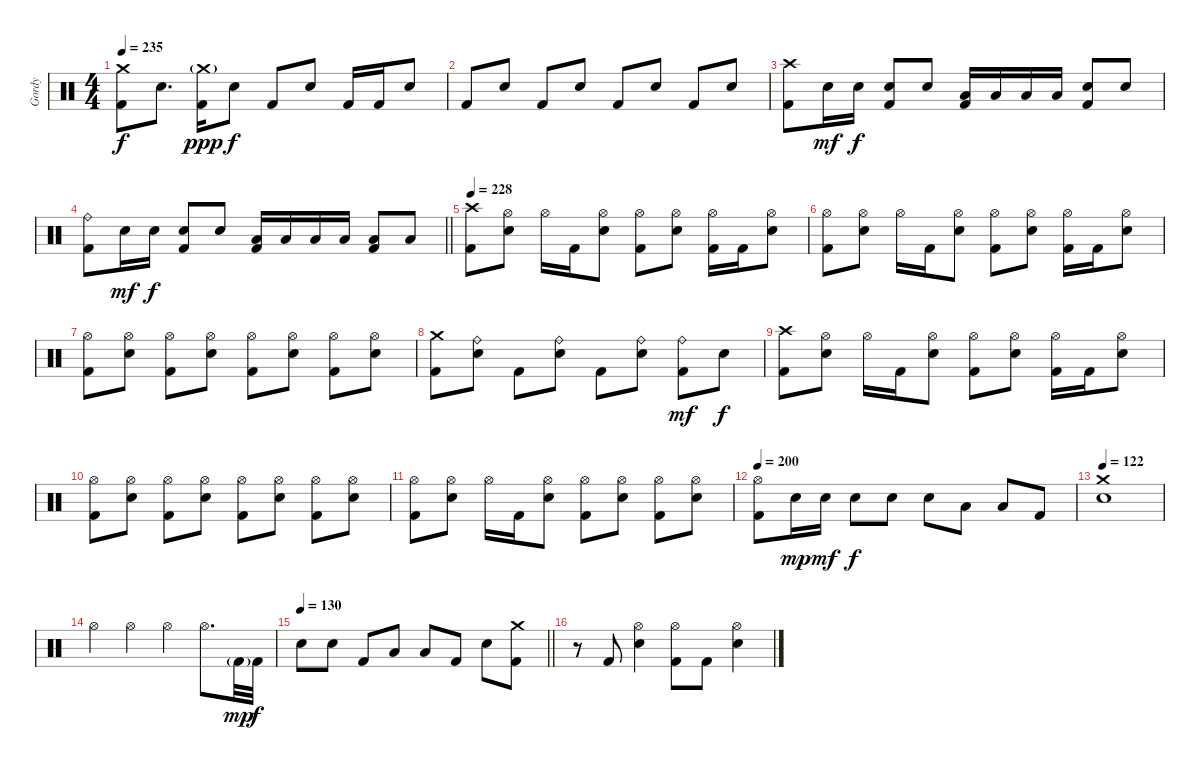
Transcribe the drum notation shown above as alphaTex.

\track ("Gordy" "Gordy") {instrument percussion}
\staff {score}
\articulation defaults
\ts (4 4)
\tempo 235
\clef neutral
\ks c
("Crash medium (hit)" "Kick (hit) 2").8{dy f} "Electric Snare (hit)".8{d} ("Crash medium (hit)"{g} "Kick (hit) 2").16{dy ppp} "Electric Snare (hit)".8{dy f} "Kick (hit) 2".8 "Electric Snare (hit)".8 "Kick (hit) 2".16 "Kick (hit) 2".16 "Electric Snare (hit)".8 |
"Kick (hit) 2".8 "Electric Snare (hit)".8 "Kick (hit) 2".8 "Electric Snare (hit)".8 "Kick (hit) 2".8 "Electric Snare (hit)".8 "Kick (hit) 2".8 "Electric Snare (hit)".8 |
("Crash high (hit)" "Kick (hit) 2").8 "Electric Snare (hit)".16{dy mf} "Electric Snare (hit)".16{dy f} ("Electric Snare (hit)" "Kick (hit) 2").8 "Electric Snare (hit)".8 ("Low Tom (hit)" "Kick (hit) 2").16 "Low Tom (hit)".16 "Low Tom (hit)".16 "Low Tom (hit)".16 ("Electric Snare (hit)" "Kick (hit) 2").8 "Electric Snare (hit)".8 |
\barLineRight lightlight
("Ride (bell)" "Kick (hit) 2").8 "Electric Snare (hit)".16{dy mf} "Electric Snare (hit)".16{dy f} ("Electric Snare (hit)" "Kick (hit) 2").8 "Electric Snare (hit)".8 ("Low Tom (hit)" "Kick (hit) 2").16 "Low Tom (hit)".16 "Low Tom (hit)".16 "Low Tom (hit)".16 ("Low Floor Tom (hit)" "Kick (hit) 2").8 "Low Floor Tom (hit)".8 |
\section ("" "")
\tempo 228
("Crash high (hit)" "Kick (hit) 2").8 ("Hi-Hat (open)" "Electric Snare (hit)").8 "Hi-Hat (open)".16 "Kick (hit) 2".16 ("Hi-Hat (open)" "Electric Snare (hit)").8 ("Hi-Hat (open)" "Kick (hit) 2").8 ("Hi-Hat (open)" "Electric Snare (hit)").8 ("Hi-Hat (open)" "Kick (hit) 2").16 "Kick (hit) 2".16 ("Hi-Hat (open)" "Electric Snare (hit)").8 |
("Hi-Hat (open)" "Kick (hit) 2").8 ("Hi-Hat (open)" "Electric Snare (hit)").8 "Hi-Hat (open)".16 "Kick (hit) 2".16 ("Hi-Hat (open)" "Electric Snare (hit)").8 ("Hi-Hat (open)" "Kick (hit) 2").8 ("Hi-Hat (open)" "Electric Snare (hit)").8 ("Hi-Hat (open)" "Kick (hit) 2").16 "Kick (hit) 2".16 ("Hi-Hat (open)" "Electric Snare (hit)").8 |
("Hi-Hat (open)" "Kick (hit) 2").8 ("Hi-Hat (open)" "Electric Snare (hit)").8 ("Hi-Hat (open)" "Kick (hit) 2").8 ("Hi-Hat (open)" "Electric Snare (hit)").8 ("Hi-Hat (open)" "Kick (hit) 2").8 ("Hi-Hat (open)" "Electric Snare (hit)").8 ("Hi-Hat (open)" "Kick (hit) 2").8 ("Hi-Hat (open)" "Electric Snare (hit)").8 |
("Crash medium (hit)" "Kick (hit) 2").8 ("Ride (bell)" "Electric Snare (hit)").8 "Kick (hit) 2".8 ("Ride (bell)" "Electric Snare (hit)").8 "Kick (hit) 2".8 ("Ride (bell)" "Electric Snare (hit)").8 ("Ride (bell)" "Kick (hit) 2").8{dy mf} "Electric Snare (hit)".8{dy f} |
("Crash high (hit)" "Kick (hit) 2").8 ("Hi-Hat (open)" "Electric Snare (hit)").8 "Hi-Hat (open)".16 "Kick (hit) 2".16 ("Hi-Hat (open)" "Electric Snare (hit)").8 ("Hi-Hat (open)" "Kick (hit) 2").8 ("Hi-Hat (open)" "Electric Snare (hit)").8 ("Hi-Hat (open)" "Kick (hit) 2").16 "Kick (hit) 2".16 ("Hi-Hat (open)" "Electric Snare (hit)").8 |
("Hi-Hat (open)" "Kick (hit) 2").8 ("Hi-Hat (open)" "Electric Snare (hit)").8 ("Hi-Hat (open)" "Kick (hit) 2").8 ("Hi-Hat (open)" "Electric Snare (hit)").8 ("Hi-Hat (open)" "Kick (hit) 2").8 ("Hi-Hat (open)" "Electric Snare (hit)").8 ("Hi-Hat (open)" "Kick (hit) 2").8 ("Hi-Hat (open)" "Electric Snare (hit)").8 |
("Hi-Hat (open)" "Kick (hit) 2").8 ("Hi-Hat (open)" "Electric Snare (hit)").8 "Hi-Hat (open)".16 "Kick (hit) 2".16 ("Hi-Hat (open)" "Electric Snare (hit)").8 ("Hi-Hat (open)" "Kick (hit) 2").8 ("Hi-Hat (open)" "Electric Snare (hit)").8 ("Hi-Hat (open)" "Kick (hit) 2").8 ("Hi-Hat (open)" "Electric Snare (hit)").8 |
\tempo 200
("Hi-Hat (open)" "Kick (hit) 2").8 "Electric Snare (hit)".16{dy mp} "Electric Snare (hit)".16{dy mf} "Electric Snare (hit)".8{dy f} "Electric Snare (hit)".8 "Electric Snare (hit)".8 "Low Tom (hit)".8 "Low Floor Tom (hit)".8 "Kick (hit) 2".8 |
\tempo 122
("Crash medium (hit)" "Electric Snare (hit)").1 |
"Hi-Hat (open)".4 "Hi-Hat (open)".4 "Hi-Hat (open)".4 "Hi-Hat (open)".8{d} "Kick (hit) 2"{g}.32{dy mp} "Kick (hit) 2".32{dy f} |
\tempo 130
\barLineRight lightlight "Electric Snare (hit)".8 "Electric Snare (hit)".8 "Kick (hit) 2".8 "Low Tom (hit)".8 "Low Floor Tom (hit)".8 "Kick (hit) 2".8 "Electric Snare (hit)".8
("Crash medium (hit)" "Kick (hit) 2").8 |
\section ("" "")
r.8 "Kick (hit) 2".8 ("Hi-Hat (open)" "Electric Snare (hit)").4 ("Hi-Hat (open)" "Kick (hit) 2").8 "Kick (hit) 2".8 ("Hi-Hat (open)" "Electric Snare (hit)").4
